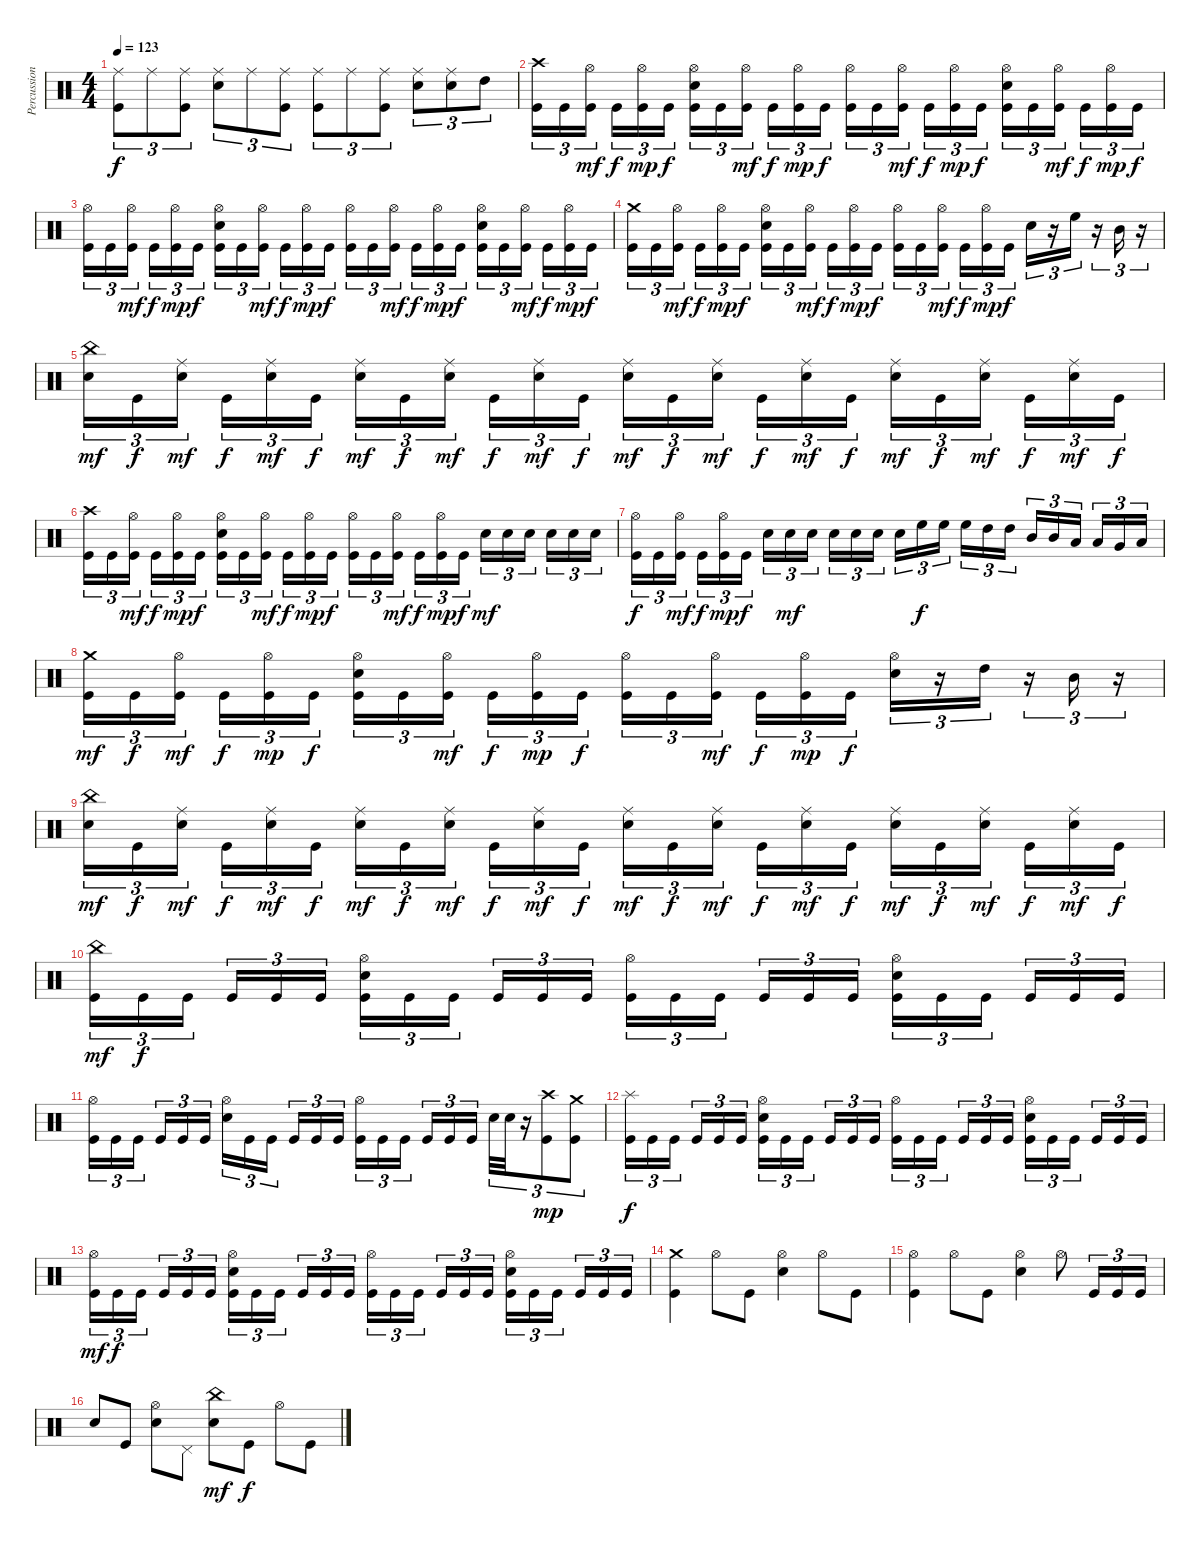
\track ("Percussions" "Percussion") {instrument percussion}
\staff {score}
\articulation defaults
\ts (4 4)
\tempo 123
\clef neutral
\ks c
("Ride (middle)" "Kick (hit)").8{tu (3 2) dy f} "Ride (middle)".8{tu (3 2)} ("Ride (middle)" "Kick (hit)").8{tu (3 2)} ("Ride (middle)" "Electric Snare (hit)").8{tu (3 2)} "Ride (middle)".8{tu (3 2)} ("Ride (middle)" "Kick (hit)").8{tu (3 2)} ("Ride (middle)" "Kick (hit)").8{tu (3 2)} "Ride (middle)".8{tu (3 2)} ("Ride (middle)" "Kick (hit)").8{tu (3 2)} ("Ride (middle)" "Electric Snare (hit)").8{tu (3 2)} ("Ride (middle)" "Snare (hit)").8{tu (3 2)} "High Tom (hit)".8{tu (3 2)} |
("Crash high (hit)" "Kick (hit)").16{tu (3 2)} "Kick (hit)".16{tu (3 2)} ("Hi-Hat (open)" "Kick (hit)").16{tu (3 2) dy mf} "Kick (hit)".16{tu (3 2) dy f} ("Hi-Hat (open)" "Kick (hit)").16{tu (3 2) dy mp} "Kick (hit)".16{tu (3 2) dy f} ("Hi-Hat (open)" "Electric Snare (hit)" "Kick (hit)").16{tu (3 2)} "Kick (hit)".16{tu (3 2)} ("Hi-Hat (open)" "Kick (hit)").16{tu (3 2) dy mf} "Kick (hit)".16{tu (3 2) dy f} ("Hi-Hat (open)" "Kick (hit)").16{tu (3 2) dy mp} "Kick (hit)".16{tu (3 2) dy f} ("Hi-Hat (open)" "Kick (hit)").16{tu (3 2)} "Kick (hit)".16{tu (3 2)} ("Hi-Hat (open)" "Kick (hit)").16{tu (3 2) dy mf} "Kick (hit)".16{tu (3 2) dy f} ("Hi-Hat (open)" "Kick (hit)").16{tu (3 2) dy mp} "Kick (hit)".16{tu (3 2) dy f} ("Hi-Hat (open)" "Electric Snare (hit)" "Kick (hit)").16{tu (3 2)} "Kick (hit)".16{tu (3 2)} ("Hi-Hat (open)" "Kick (hit)").16{tu (3 2) dy mf} "Kick (hit)".16{tu (3 2) dy f} ("Hi-Hat (open)" "Kick (hit)").16{tu (3 2) dy mp} "Kick (hit)".16{tu (3 2) dy f} |
("Hi-Hat (open)" "Kick (hit)").16{tu (3 2)} "Kick (hit)".16{tu (3 2)} ("Hi-Hat (open)" "Kick (hit)").16{tu (3 2) dy mf} "Kick (hit)".16{tu (3 2) dy f} ("Hi-Hat (open)" "Kick (hit)").16{tu (3 2) dy mp} "Kick (hit)".16{tu (3 2) dy f} ("Hi-Hat (open)" "Electric Snare (hit)" "Kick (hit)").16{tu (3 2)} "Kick (hit)".16{tu (3 2)} ("Hi-Hat (open)" "Kick (hit)").16{tu (3 2) dy mf} "Kick (hit)".16{tu (3 2) dy f} ("Hi-Hat (open)" "Kick (hit)").16{tu (3 2) dy mp} "Kick (hit)".16{tu (3 2) dy f} ("Hi-Hat (open)" "Kick (hit)").16{tu (3 2)} "Kick (hit)".16{tu (3 2)} ("Hi-Hat (open)" "Kick (hit)").16{tu (3 2) dy mf} "Kick (hit)".16{tu (3 2) dy f} ("Hi-Hat (open)" "Kick (hit)").16{tu (3 2) dy mp} "Kick (hit)".16{tu (3 2) dy f} ("Hi-Hat (open)" "Electric Snare (hit)" "Kick (hit)").16{tu (3 2)} "Kick (hit)".16{tu (3 2)} ("Hi-Hat (open)" "Kick (hit)").16{tu (3 2) dy mf} "Kick (hit)".16{tu (3 2) dy f} ("Hi-Hat (open)" "Kick (hit)").16{tu (3 2) dy mp} "Kick (hit)".16{tu (3 2) dy f} |
("Crash medium (hit)" "Kick (hit)").16{tu (3 2)} "Kick (hit)".16{tu (3 2)} ("Hi-Hat (open)" "Kick (hit)").16{tu (3 2) dy mf} "Kick (hit)".16{tu (3 2) dy f} ("Hi-Hat (open)" "Kick (hit)").16{tu (3 2) dy mp} "Kick (hit)".16{tu (3 2) dy f} ("Hi-Hat (open)" "Electric Snare (hit)" "Kick (hit)").16{tu (3 2)} "Kick (hit)".16{tu (3 2)} ("Hi-Hat (open)" "Kick (hit)").16{tu (3 2) dy mf} "Kick (hit)".16{tu (3 2) dy f} ("Hi-Hat (open)" "Kick (hit)").16{tu (3 2) dy mp} "Kick (hit)".16{tu (3 2) dy f} ("Hi-Hat (open)" "Kick (hit)").16{tu (3 2)} "Kick (hit)".16{tu (3 2)} ("Hi-Hat (open)" "Kick (hit)").16{tu (3 2) dy mf} "Kick (hit)".16{tu (3 2) dy f} ("Hi-Hat (open)" "Kick (hit)").16{tu (3 2) dy mp} "Kick (hit)".16{tu (3 2) dy f} "Electric Snare (hit)".16{tu (3 2)} r.16{tu (3 2)} "High Floor Tom (hit)".16{tu (3 2)} r.16{tu (3 2)} "Mid Tom (hit)".16{tu (3 2)} r.16{tu (3 2)} |
("China (hit)" "Electric Snare (hit)").16{tu (3 2) dy mf} "Kick (hit)".16{tu (3 2) dy f} ("Ride (middle)" "Electric Snare (hit)").16{tu (3 2) dy mf} "Kick (hit)".16{tu (3 2) dy f} ("Ride (middle)" "Electric Snare (hit)").16{tu (3 2) dy mf} "Kick (hit)".16{tu (3 2) dy f} ("Ride (middle)" "Electric Snare (hit)").16{tu (3 2) dy mf} "Kick (hit)".16{tu (3 2) dy f} ("Ride (middle)" "Electric Snare (hit)").16{tu (3 2) dy mf} "Kick (hit)".16{tu (3 2) dy f} ("Ride (middle)" "Electric Snare (hit)").16{tu (3 2) dy mf} "Kick (hit)".16{tu (3 2) dy f} ("Ride (middle)" "Electric Snare (hit)").16{tu (3 2) dy mf} "Kick (hit)".16{tu (3 2) dy f} ("Ride (middle)" "Electric Snare (hit)").16{tu (3 2) dy mf} "Kick (hit)".16{tu (3 2) dy f} ("Ride (middle)" "Electric Snare (hit)").16{tu (3 2) dy mf} "Kick (hit)".16{tu (3 2) dy f} ("Ride (middle)" "Electric Snare (hit)").16{tu (3 2) dy mf} "Kick (hit)".16{tu (3 2) dy f} ("Ride (middle)" "Electric Snare (hit)").16{tu (3 2) dy mf} "Kick (hit)".16{tu (3 2) dy f} ("Ride (middle)" "Electric Snare (hit)").16{tu (3 2) dy mf} "Kick (hit)".16{tu (3 2) dy f} |
("Crash high (hit)" "Kick (hit)").16{tu (3 2)} "Kick (hit)".16{tu (3 2)} ("Hi-Hat (open)" "Kick (hit)").16{tu (3 2) dy mf} "Kick (hit)".16{tu (3 2) dy f} ("Hi-Hat (open)" "Kick (hit)").16{tu (3 2) dy mp} "Kick (hit)".16{tu (3 2) dy f} ("Hi-Hat (open)" "Electric Snare (hit)" "Kick (hit)").16{tu (3 2)} "Kick (hit)".16{tu (3 2)} ("Hi-Hat (open)" "Kick (hit)").16{tu (3 2) dy mf} "Kick (hit)".16{tu (3 2) dy f} ("Hi-Hat (open)" "Kick (hit)").16{tu (3 2) dy mp} "Kick (hit)".16{tu (3 2) dy f} ("Hi-Hat (open)" "Kick (hit)").16{tu (3 2)} "Kick (hit)".16{tu (3 2)} ("Hi-Hat (open)" "Kick (hit)").16{tu (3 2) dy mf} "Kick (hit)".16{tu (3 2) dy f} ("Hi-Hat (open)" "Kick (hit)").16{tu (3 2) dy mp} "Kick (hit)".16{tu (3 2) dy f} "Electric Snare (hit)".16{tu (3 2) dy mf} "Electric Snare (hit)".16{tu (3 2)} "Electric Snare (hit)".16{tu (3 2)} "Electric Snare (hit)".16{tu (3 2)} "Electric Snare (hit)".16{tu (3 2)} "Electric Snare (hit)".16{tu (3 2)} |
("Hi-Hat (open)" "Kick (hit)").16{tu (3 2) dy f} "Kick (hit)".16{tu (3 2)} ("Hi-Hat (open)" "Kick (hit)").16{tu (3 2) dy mf} "Kick (hit)".16{tu (3 2) dy f} ("Hi-Hat (open)" "Kick (hit)").16{tu (3 2) dy mp} "Kick (hit)".16{tu (3 2) dy f} "Electric Snare (hit)".16{tu (3 2)} "Electric Snare (hit)".16{tu (3 2) dy mf} "Electric Snare (hit)".16{tu (3 2)} "Electric Snare (hit)".16{tu (3 2)} "Electric Snare (hit)".16{tu (3 2)} "Electric Snare (hit)".16{tu (3 2)} "Electric Snare (hit)".16{tu (3 2)} "High Floor Tom (hit)".16{tu (3 2) dy f} "High Floor Tom (hit)".16{tu (3 2)} "High Floor Tom (hit)".16{tu (3 2)} "High Tom (hit)".16{tu (3 2)} "High Tom (hit)".16{tu (3 2)} "Mid Tom (hit)".16{tu (3 2)} "Mid Tom (hit)".16{tu (3 2)} "Low Tom (hit)".16{tu (3 2)} "Low Tom (hit)".16{tu (3 2)} "Very Low Tom (hit)".16{tu (3 2)} "Low Floor Tom (hit)".16{tu (3 2)} |
("Crash medium (hit)" "Kick (hit)").16{tu (3 2) dy mf} "Kick (hit)".16{tu (3 2) dy f} ("Hi-Hat (open)" "Kick (hit)").16{tu (3 2) dy mf} "Kick (hit)".16{tu (3 2) dy f} ("Hi-Hat (open)" "Kick (hit)").16{tu (3 2) dy mp} "Kick (hit)".16{tu (3 2) dy f} ("Hi-Hat (open)" "Electric Snare (hit)" "Kick (hit)").16{tu (3 2)} "Kick (hit)".16{tu (3 2)} ("Hi-Hat (open)" "Kick (hit)").16{tu (3 2) dy mf} "Kick (hit)".16{tu (3 2) dy f} ("Hi-Hat (open)" "Kick (hit)").16{tu (3 2) dy mp} "Kick (hit)".16{tu (3 2) dy f} ("Hi-Hat (open)" "Kick (hit)").16{tu (3 2)} "Kick (hit)".16{tu (3 2)} ("Hi-Hat (open)" "Kick (hit)").16{tu (3 2) dy mf} "Kick (hit)".16{tu (3 2) dy f} ("Hi-Hat (open)" "Kick (hit)").16{tu (3 2) dy mp} "Kick (hit)".16{tu (3 2) dy f} ("Hi-Hat (open)" "Electric Snare (hit)").16{tu (3 2)} r.16{tu (3 2)} "High Tom (hit)".16{tu (3 2)} r.16{tu (3 2)} "Mid Tom (hit)".16{tu (3 2)} r.16{tu (3 2)} |
("China (hit)" "Electric Snare (hit)").16{tu (3 2) dy mf} "Kick (hit)".16{tu (3 2) dy f} ("Ride (middle)" "Electric Snare (hit)").16{tu (3 2) dy mf} "Kick (hit)".16{tu (3 2) dy f} ("Ride (middle)" "Electric Snare (hit)").16{tu (3 2) dy mf} "Kick (hit)".16{tu (3 2) dy f} ("Ride (middle)" "Electric Snare (hit)").16{tu (3 2) dy mf} "Kick (hit)".16{tu (3 2) dy f} ("Ride (middle)" "Electric Snare (hit)").16{tu (3 2) dy mf} "Kick (hit)".16{tu (3 2) dy f} ("Ride (middle)" "Electric Snare (hit)").16{tu (3 2) dy mf} "Kick (hit)".16{tu (3 2) dy f} ("Ride (middle)" "Electric Snare (hit)").16{tu (3 2) dy mf} "Kick (hit)".16{tu (3 2) dy f} ("Ride (middle)" "Electric Snare (hit)").16{tu (3 2) dy mf} "Kick (hit)".16{tu (3 2) dy f} ("Ride (middle)" "Electric Snare (hit)").16{tu (3 2) dy mf} "Kick (hit)".16{tu (3 2) dy f} ("Ride (middle)" "Electric Snare (hit)").16{tu (3 2) dy mf} "Kick (hit)".16{tu (3 2) dy f} ("Ride (middle)" "Electric Snare (hit)").16{tu (3 2) dy mf} "Kick (hit)".16{tu (3 2) dy f} ("Ride (middle)" "Electric Snare (hit)").16{tu (3 2) dy mf} "Kick (hit)".16{tu (3 2) dy f} |
("China (hit)" "Kick (hit)").16{tu (3 2) dy mf} "Kick (hit)".16{tu (3 2) dy f} "Kick (hit)".16{tu (3 2)} "Kick (hit)".16{tu (3 2)} "Kick (hit)".16{tu (3 2)} "Kick (hit)".16{tu (3 2)} ("Hi-Hat (open)" "Electric Snare (hit)" "Kick (hit)").16{tu (3 2)} "Kick (hit)".16{tu (3 2)} "Kick (hit)".16{tu (3 2)} "Kick (hit)".16{tu (3 2)} "Kick (hit)".16{tu (3 2)} "Kick (hit)".16{tu (3 2)} ("Hi-Hat (open)" "Kick (hit)").16{tu (3 2)} "Kick (hit)".16{tu (3 2)} "Kick (hit)".16{tu (3 2)} "Kick (hit)".16{tu (3 2)} "Kick (hit)".16{tu (3 2)} "Kick (hit)".16{tu (3 2)} ("Hi-Hat (open)" "Electric Snare (hit)" "Kick (hit)").16{tu (3 2)} "Kick (hit)".16{tu (3 2)} "Kick (hit)".16{tu (3 2)} "Kick (hit)".16{tu (3 2)} "Kick (hit)".16{tu (3 2)} "Kick (hit)".16{tu (3 2)} |
("Hi-Hat (open)" "Kick (hit)").16{tu (3 2)} "Kick (hit)".16{tu (3 2)} "Kick (hit)".16{tu (3 2)} "Kick (hit)".16{tu (3 2)} "Kick (hit)".16{tu (3 2)} "Kick (hit)".16{tu (3 2)} ("Hi-Hat (open)" "Electric Snare (hit)").16{tu (3 2)} "Kick (hit)".16{tu (3 2)} "Kick (hit)".16{tu (3 2)} "Kick (hit)".16{tu (3 2)} "Kick (hit)".16{tu (3 2)} "Kick (hit)".16{tu (3 2)} ("Hi-Hat (open)" "Kick (hit)").16{tu (3 2)} "Kick (hit)".16{tu (3 2)} "Kick (hit)".16{tu (3 2)} "Kick (hit)".16{tu (3 2)} "Kick (hit)".16{tu (3 2)} "Kick (hit)".16{tu (3 2)} "Electric Snare (hit)".32{tu (3 2)} "Electric Snare (hit)".32{tu (3 2)} r.16{tu (3 2)} ("Crash high (hit)" "Kick (hit)").8{tu (3 2) dy mp} ("Crash medium (hit)" "Kick (hit)").8{tu (3 2)} |
("Splash (hit)" "Kick (hit)").16{tu (3 2) dy f} "Kick (hit)".16{tu (3 2)} "Kick (hit)".16{tu (3 2)} "Kick (hit)".16{tu (3 2)} "Kick (hit)".16{tu (3 2)} "Kick (hit)".16{tu (3 2)} ("Hi-Hat (open)" "Electric Snare (hit)" "Kick (hit)").16{tu (3 2)} "Kick (hit)".16{tu (3 2)} "Kick (hit)".16{tu (3 2)} "Kick (hit)".16{tu (3 2)} "Kick (hit)".16{tu (3 2)} "Kick (hit)".16{tu (3 2)} ("Hi-Hat (open)" "Kick (hit)").16{tu (3 2)} "Kick (hit)".16{tu (3 2)} "Kick (hit)".16{tu (3 2)} "Kick (hit)".16{tu (3 2)} "Kick (hit)".16{tu (3 2)} "Kick (hit)".16{tu (3 2)} ("Hi-Hat (open)" "Electric Snare (hit)" "Kick (hit)").16{tu (3 2)} "Kick (hit)".16{tu (3 2)} "Kick (hit)".16{tu (3 2)} "Kick (hit)".16{tu (3 2)} "Kick (hit)".16{tu (3 2)} "Kick (hit)".16{tu (3 2)} |
("Hi-Hat (open)" "Kick (hit)").16{tu (3 2) dy mf} "Kick (hit)".16{tu (3 2) dy f} "Kick (hit)".16{tu (3 2)} "Kick (hit)".16{tu (3 2)} "Kick (hit)".16{tu (3 2)} "Kick (hit)".16{tu (3 2)} ("Hi-Hat (open)" "Electric Snare (hit)" "Kick (hit)").16{tu (3 2)} "Kick (hit)".16{tu (3 2)} "Kick (hit)".16{tu (3 2)} "Kick (hit)".16{tu (3 2)} "Kick (hit)".16{tu (3 2)} "Kick (hit)".16{tu (3 2)} ("Hi-Hat (open)" "Kick (hit)").16{tu (3 2)} "Kick (hit)".16{tu (3 2)} "Kick (hit)".16{tu (3 2)} "Kick (hit)".16{tu (3 2)} "Kick (hit)".16{tu (3 2)} "Kick (hit)".16{tu (3 2)} ("Hi-Hat (open)" "Electric Snare (hit)" "Kick (hit)").16{tu (3 2)} "Kick (hit)".16{tu (3 2)} "Kick (hit)".16{tu (3 2)} "Kick (hit)".16{tu (3 2)} "Kick (hit)".16{tu (3 2)} "Kick (hit)".16{tu (3 2)} |
("Crash medium (hit)" "Kick (hit)").4 "Hi-Hat (open)".8 "Kick (hit)".8 ("Hi-Hat (open)" "Electric Snare (hit)").4 "Hi-Hat (open)".8 "Kick (hit)".8 |
("Hi-Hat (open)" "Kick (hit)").4 "Hi-Hat (open)".8 "Kick (hit)".8 ("Hi-Hat (open)" "Electric Snare (hit)").4 "Hi-Hat (open)".8 "Kick (hit)".16{tu (3 2)} "Kick (hit)".16{tu (3 2)} "Kick (hit)".16{tu (3 2)} |
"Electric Snare (hit)".8 "Kick (hit)".8 ("Hi-Hat (open)" "Electric Snare (hit)").8 "Pedal Hi-Hat (hit)".8 ("China (hit)" "Electric Snare (hit)").8{dy mf} "Kick (hit)".8{dy f} "Hi-Hat (open)".8 "Kick (hit)".8
